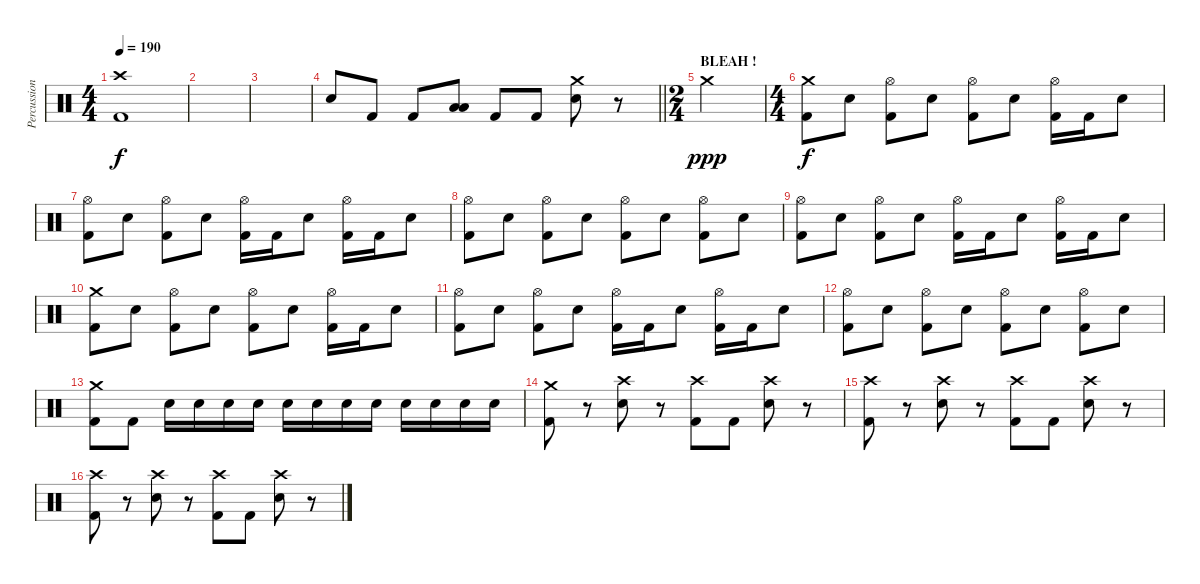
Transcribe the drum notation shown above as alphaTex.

\track ("Percussion" "Percussion") {instrument percussion}
\staff {score}
\articulation defaults
\ts (4 4)
\tempo 190
\clef neutral
\ks c
("Crash high (hit)" "Kick (hit) 2").1{dy f} |
|
|
\barLineRight lightlight "Snare (hit) 2".8 "Kick (hit) 2".8 "Kick (hit) 2".8
("Low Tom (hit)" "Low Floor Tom (hit)").8 "Kick (hit) 2".8 "Kick (hit) 2".8 ("Crash medium (hit)" "Snare (hit) 2").8 r.8 |
\ts (2 4)
\section ("" "BLEAH !")
"Crash medium (hit)".2{dy ppp} |
\ts (4 4)
("Crash medium (hit)" "Kick (hit) 2").8{dy f} "Snare (hit) 2".8 ("Hi-Hat (open)" "Kick (hit) 2").8 "Snare (hit) 2".8 ("Hi-Hat (open)" "Kick (hit) 2").8 "Snare (hit) 2".8 ("Hi-Hat (open)" "Kick (hit) 2").16 "Kick (hit) 2".16 "Snare (hit) 2".8 |
("Hi-Hat (open)" "Kick (hit) 2").8 "Snare (hit) 2".8 ("Hi-Hat (open)" "Kick (hit) 2").8 "Snare (hit) 2".8 ("Hi-Hat (open)" "Kick (hit) 2").16 "Kick (hit) 2".16 "Snare (hit) 2".8 ("Hi-Hat (open)" "Kick (hit) 2").16 "Kick (hit) 2".16 "Snare (hit) 2".8 |
("Hi-Hat (open)" "Kick (hit) 2").8 "Snare (hit) 2".8 ("Hi-Hat (open)" "Kick (hit) 2").8 "Snare (hit) 2".8 ("Hi-Hat (open)" "Kick (hit) 2").8 "Snare (hit) 2".8 ("Hi-Hat (open)" "Kick (hit) 2").8 "Snare (hit) 2".8 |
("Hi-Hat (open)" "Kick (hit) 2").8 "Snare (hit) 2".8 ("Hi-Hat (open)" "Kick (hit) 2").8 "Snare (hit) 2".8 ("Hi-Hat (open)" "Kick (hit) 2").16 "Kick (hit) 2".16 "Snare (hit) 2".8 ("Hi-Hat (open)" "Kick (hit) 2").16 "Kick (hit) 2".16 "Snare (hit) 2".8 |
("Crash medium (hit)" "Kick (hit) 2").8 "Snare (hit) 2".8 ("Hi-Hat (open)" "Kick (hit) 2").8 "Snare (hit) 2".8 ("Hi-Hat (open)" "Kick (hit) 2").8 "Snare (hit) 2".8 ("Hi-Hat (open)" "Kick (hit) 2").16 "Kick (hit) 2".16 "Snare (hit) 2".8 |
("Hi-Hat (open)" "Kick (hit) 2").8 "Snare (hit) 2".8 ("Hi-Hat (open)" "Kick (hit) 2").8 "Snare (hit) 2".8 ("Hi-Hat (open)" "Kick (hit) 2").16 "Kick (hit) 2".16 "Snare (hit) 2".8 ("Hi-Hat (open)" "Kick (hit) 2").16 "Kick (hit) 2".16 "Snare (hit) 2".8 |
("Hi-Hat (open)" "Kick (hit) 2").8 "Snare (hit) 2".8 ("Hi-Hat (open)" "Kick (hit) 2").8 "Snare (hit) 2".8 ("Hi-Hat (open)" "Kick (hit) 2").8 "Snare (hit) 2".8 ("Hi-Hat (open)" "Kick (hit) 2").8 "Snare (hit) 2".8 |
("Crash medium (hit)" "Kick (hit) 2").8 "Kick (hit) 2".8 "Snare (hit) 2".16 "Snare (hit) 2".16 "Snare (hit) 2".16 "Snare (hit) 2".16 "Snare (hit) 2".16 "Snare (hit) 2".16 "Snare (hit) 2".16 "Snare (hit) 2".16 "Snare (hit) 2".16 "Snare (hit) 2".16 "Snare (hit) 2".16 "Snare (hit) 2".16 |
("Crash medium (hit)" "Kick (hit) 2").8 r.8 ("Crash high (hit)" "Snare (hit) 2").8 r.8 ("Crash high (hit)" "Kick (hit) 2").8 "Kick (hit) 2".8 ("Crash high (hit)" "Snare (hit) 2").8 r.8 |
("Crash high (hit)" "Kick (hit) 2").8 r.8 ("Crash high (hit)" "Snare (hit) 2").8 r.8 ("Crash high (hit)" "Kick (hit) 2").8 "Kick (hit) 2".8 ("Crash high (hit)" "Snare (hit) 2").8 r.8 |
("Crash high (hit)" "Kick (hit) 2").8 r.8 ("Crash high (hit)" "Snare (hit) 2").8 r.8 ("Crash high (hit)" "Kick (hit) 2").8 "Kick (hit) 2".8 ("Crash high (hit)" "Snare (hit) 2").8 r.8
